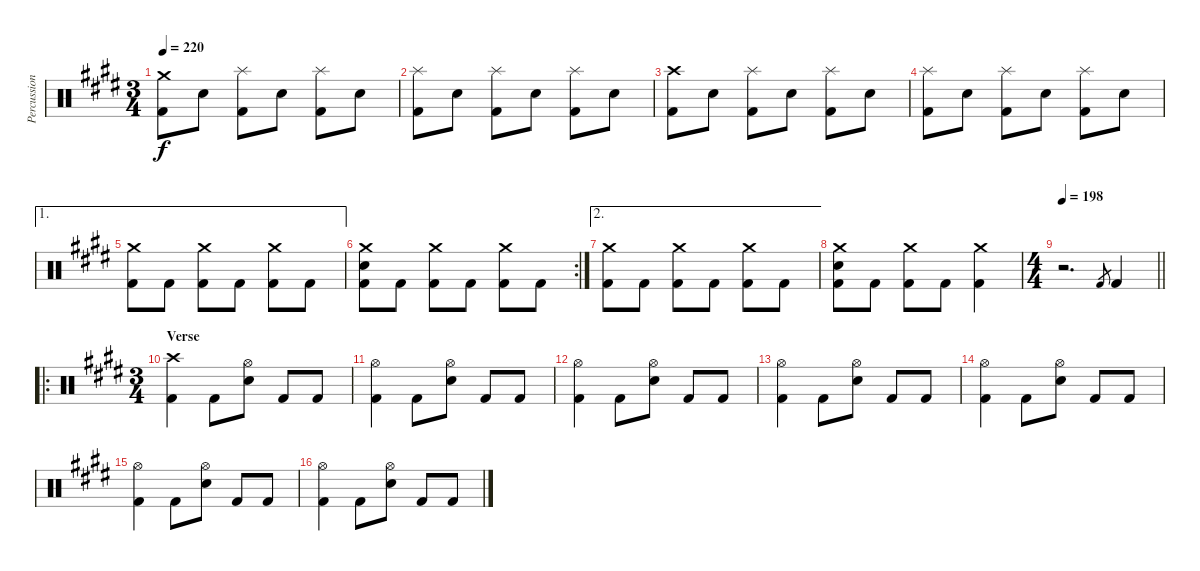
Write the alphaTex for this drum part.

\track ("Percussion" "Percussion") {instrument percussion}
\staff {score}
\articulation defaults
\ts (3 4)
\tempo 220
\clef neutral
\ks e
("Crash medium (hit)" "Kick (hit) 2").8{dy f} "Snare (hit) 2".8 ("Splash (hit)" "Kick (hit) 2").8 "Snare (hit) 2".8 ("Splash (hit)" "Kick (hit) 2").8 "Snare (hit) 2".8 |
("Splash (hit)" "Kick (hit) 2").8 "Snare (hit) 2".8 ("Splash (hit)" "Kick (hit) 2").8 "Snare (hit) 2".8 ("Splash (hit)" "Kick (hit) 2").8 "Snare (hit) 2".8 |
("Crash high (hit)" "Kick (hit) 2").8 "Snare (hit) 2".8 ("Splash (hit)" "Kick (hit) 2").8 "Snare (hit) 2".8 ("Splash (hit)" "Kick (hit) 2").8 "Snare (hit) 2".8 |
("Splash (hit)" "Kick (hit) 2").8 "Snare (hit) 2".8 ("Splash (hit)" "Kick (hit) 2").8 "Snare (hit) 2".8 ("Splash (hit)" "Kick (hit) 2").8 "Snare (hit) 2".8 |
\ae 1
("Crash medium (hit)" "Kick (hit) 2").8 "Kick (hit) 2".8 ("Crash medium (hit)" "Kick (hit) 2").8 "Kick (hit) 2".8 ("Crash medium (hit)" "Kick (hit) 2").8 "Kick (hit) 2".8 |
\rc 2
("Crash medium (hit)" "Snare (hit) 2" "Kick (hit) 2").8 "Kick (hit) 2".8 ("Crash medium (hit)" "Kick (hit) 2").8 "Kick (hit) 2".8 ("Crash medium (hit)" "Kick (hit) 2").8 "Kick (hit) 2".8 |
\ae 2
("Crash medium (hit)" "Kick (hit) 2").8 "Kick (hit) 2".8 ("Crash medium (hit)" "Kick (hit) 2").8 "Kick (hit) 2".8 ("Crash medium (hit)" "Kick (hit) 2").8 "Kick (hit) 2".8 |
("Crash medium (hit)" "Snare (hit) 2" "Kick (hit) 2").8 "Kick (hit) 2".8 ("Crash medium (hit)" "Kick (hit) 2").8 "Kick (hit) 2".8 ("Crash medium (hit)" "Kick (hit) 2").4 |
\ts (4 4)
\tempo 198
\barLineRight lightlight
r.2{d} "Kick (hit) 2".8{gr} "Kick (hit) 2".4 |
\ro
\ts (3 4)
\section ("" "Verse")
("Crash high (hit)" "Kick (hit) 2").4 "Kick (hit) 2".8 ("Hi-Hat (open)" "Snare (hit) 2").8 "Kick (hit) 2".8 "Kick (hit) 2".8 |
("Hi-Hat (open)" "Kick (hit) 2").4 "Kick (hit) 2".8 ("Hi-Hat (open)" "Snare (hit) 2").8 "Kick (hit) 2".8 "Kick (hit) 2".8 |
("Hi-Hat (open)" "Kick (hit) 2").4 "Kick (hit) 2".8 ("Hi-Hat (open)" "Snare (hit) 2").8 "Kick (hit) 2".8 "Kick (hit) 2".8 |
("Hi-Hat (open)" "Kick (hit) 2").4 "Kick (hit) 2".8 ("Hi-Hat (open)" "Snare (hit) 2").8 "Kick (hit) 2".8 "Kick (hit) 2".8 |
("Hi-Hat (open)" "Kick (hit) 2").4 "Kick (hit) 2".8 ("Hi-Hat (open)" "Snare (hit) 2").8 "Kick (hit) 2".8 "Kick (hit) 2".8 |
("Hi-Hat (open)" "Kick (hit) 2").4 "Kick (hit) 2".8 ("Hi-Hat (open)" "Snare (hit) 2").8 "Kick (hit) 2".8 "Kick (hit) 2".8 |
("Hi-Hat (open)" "Kick (hit) 2").4 "Kick (hit) 2".8 ("Hi-Hat (open)" "Snare (hit) 2").8 "Kick (hit) 2".8 "Kick (hit) 2".8
